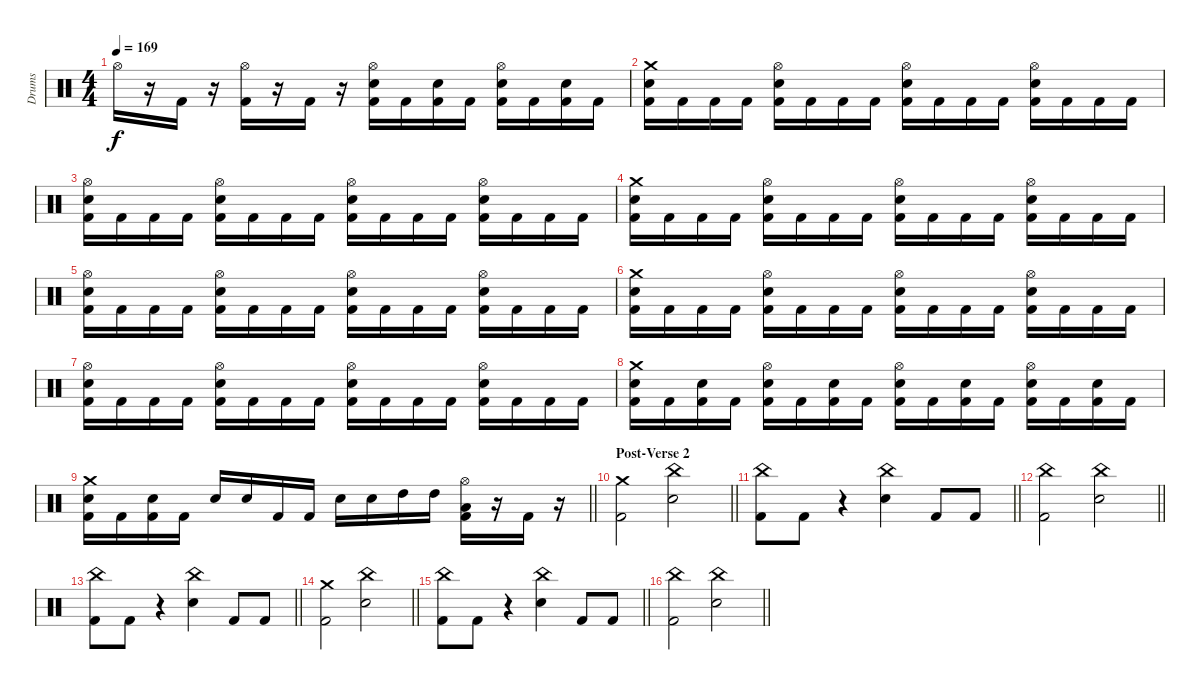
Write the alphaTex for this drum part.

\track ("Drums" "Drums") {instrument percussion}
\staff {score}
\articulation defaults
\ts (4 4)
\tempo 169
\clef neutral
\ks c "Hi-Hat (open)".16{dy f}
r.16 "Kick (hit) 2".16 r.16 ("Hi-Hat (open)" "Kick (hit) 2").16 r.16 "Kick (hit) 2".16 r.16 ("Hi-Hat (open)" "Snare (hit) 2" "Kick (hit) 2").16 "Kick (hit) 2".16 ("Snare (hit) 2" "Kick (hit) 2").16 "Kick (hit) 2".16 ("Hi-Hat (open)" "Snare (hit) 2" "Kick (hit) 2").16 "Kick (hit) 2".16 ("Snare (hit) 2" "Kick (hit) 2").16 "Kick (hit) 2".16 |
("Crash medium (hit)" "Snare (hit) 2" "Kick (hit) 2").16 "Kick (hit) 2".16 "Kick (hit) 2".16 "Kick (hit) 2".16 ("Hi-Hat (open)" "Snare (hit) 2" "Kick (hit) 2").16 "Kick (hit) 2".16 "Kick (hit) 2".16 "Kick (hit) 2".16 ("Hi-Hat (open)" "Snare (hit) 2" "Kick (hit) 2").16 "Kick (hit) 2".16 "Kick (hit) 2".16 "Kick (hit) 2".16 ("Hi-Hat (open)" "Snare (hit) 2" "Kick (hit) 2").16 "Kick (hit) 2".16 "Kick (hit) 2".16 "Kick (hit) 2".16 |
("Hi-Hat (open)" "Snare (hit) 2" "Kick (hit) 2").16 "Kick (hit) 2".16 "Kick (hit) 2".16 "Kick (hit) 2".16 ("Hi-Hat (open)" "Snare (hit) 2" "Kick (hit) 2").16 "Kick (hit) 2".16 "Kick (hit) 2".16 "Kick (hit) 2".16 ("Hi-Hat (open)" "Snare (hit) 2" "Kick (hit) 2").16 "Kick (hit) 2".16 "Kick (hit) 2".16 "Kick (hit) 2".16 ("Hi-Hat (open)" "Snare (hit) 2" "Kick (hit) 2").16 "Kick (hit) 2".16 "Kick (hit) 2".16 "Kick (hit) 2".16 |
("Crash medium (hit)" "Snare (hit) 2" "Kick (hit) 2").16 "Kick (hit) 2".16 "Kick (hit) 2".16 "Kick (hit) 2".16 ("Hi-Hat (open)" "Snare (hit) 2" "Kick (hit) 2").16 "Kick (hit) 2".16 "Kick (hit) 2".16 "Kick (hit) 2".16 ("Hi-Hat (open)" "Snare (hit) 2" "Kick (hit) 2").16 "Kick (hit) 2".16 "Kick (hit) 2".16 "Kick (hit) 2".16 ("Hi-Hat (open)" "Snare (hit) 2" "Kick (hit) 2").16 "Kick (hit) 2".16 "Kick (hit) 2".16 "Kick (hit) 2".16 |
("Hi-Hat (open)" "Snare (hit) 2" "Kick (hit) 2").16 "Kick (hit) 2".16 "Kick (hit) 2".16 "Kick (hit) 2".16 ("Hi-Hat (open)" "Snare (hit) 2" "Kick (hit) 2").16 "Kick (hit) 2".16 "Kick (hit) 2".16 "Kick (hit) 2".16 ("Hi-Hat (open)" "Snare (hit) 2" "Kick (hit) 2").16 "Kick (hit) 2".16 "Kick (hit) 2".16 "Kick (hit) 2".16 ("Hi-Hat (open)" "Snare (hit) 2" "Kick (hit) 2").16 "Kick (hit) 2".16 "Kick (hit) 2".16 "Kick (hit) 2".16 |
("Crash medium (hit)" "Snare (hit) 2" "Kick (hit) 2").16 "Kick (hit) 2".16 "Kick (hit) 2".16 "Kick (hit) 2".16 ("Hi-Hat (open)" "Snare (hit) 2" "Kick (hit) 2").16 "Kick (hit) 2".16 "Kick (hit) 2".16 "Kick (hit) 2".16 ("Hi-Hat (open)" "Snare (hit) 2" "Kick (hit) 2").16 "Kick (hit) 2".16 "Kick (hit) 2".16 "Kick (hit) 2".16 ("Hi-Hat (open)" "Snare (hit) 2" "Kick (hit) 2").16 "Kick (hit) 2".16 "Kick (hit) 2".16 "Kick (hit) 2".16 |
("Hi-Hat (open)" "Snare (hit) 2" "Kick (hit) 2").16 "Kick (hit) 2".16 "Kick (hit) 2".16 "Kick (hit) 2".16 ("Hi-Hat (open)" "Snare (hit) 2" "Kick (hit) 2").16 "Kick (hit) 2".16 "Kick (hit) 2".16 "Kick (hit) 2".16 ("Hi-Hat (open)" "Snare (hit) 2" "Kick (hit) 2").16 "Kick (hit) 2".16 "Kick (hit) 2".16 "Kick (hit) 2".16 ("Hi-Hat (open)" "Snare (hit) 2" "Kick (hit) 2").16 "Kick (hit) 2".16 "Kick (hit) 2".16 "Kick (hit) 2".16 |
("Crash medium (hit)" "Snare (hit) 2" "Kick (hit) 2").16 "Kick (hit) 2".16 ("Snare (hit) 2" "Kick (hit) 2").16 "Kick (hit) 2".16 ("Hi-Hat (open)" "Snare (hit) 2" "Kick (hit) 2").16 "Kick (hit) 2".16 ("Snare (hit) 2" "Kick (hit) 2").16 "Kick (hit) 2".16 ("Hi-Hat (open)" "Snare (hit) 2" "Kick (hit) 2").16 "Kick (hit) 2".16 ("Snare (hit) 2" "Kick (hit) 2").16 "Kick (hit) 2".16 ("Hi-Hat (open)" "Snare (hit) 2" "Kick (hit) 2").16 "Kick (hit) 2".16 ("Snare (hit) 2" "Kick (hit) 2").16 "Kick (hit) 2".16 |
\barLineRight lightlight
("Crash medium (hit)" "Snare (hit) 2" "Kick (hit) 2").16 "Kick (hit) 2".16 ("Snare (hit) 2" "Kick (hit) 2").16 "Kick (hit) 2".16 "Snare (hit) 2".16 "Snare (hit) 2".16 "Kick (hit) 2".16 "Kick (hit) 2".16 "Snare (hit) 2".16 "Snare (hit) 2".16 "High Tom (hit)".16 "High Tom (hit)".16 ("Hi-Hat (open)" "Low Tom (hit)" "Kick (hit) 2").16 r.16 "Kick (hit) 2".16 r.16 |
\section ("" "Post-Verse 2")
\barLineRight lightlight
("Crash medium (hit)" "Kick (hit) 2").2 ("China (hit)" "Snare (hit) 2").2 |
\barLineRight lightlight
("China (hit)" "Kick (hit) 2").8 "Kick (hit) 2".8 r.4 ("China (hit)" "Snare (hit) 2").4 "Kick (hit) 2".8 "Kick (hit) 2".8 |
\barLineRight lightlight
("China (hit)" "Kick (hit) 2").2 ("China (hit)" "Snare (hit) 2").2 |
\barLineRight lightlight
("China (hit)" "Kick (hit) 2").8 "Kick (hit) 2".8 r.4 ("China (hit)" "Snare (hit) 2").4 "Kick (hit) 2".8 "Kick (hit) 2".8 |
\barLineRight lightlight
("Crash medium (hit)" "Kick (hit) 2").2 ("China (hit)" "Snare (hit) 2").2 |
\barLineRight lightlight
("China (hit)" "Kick (hit) 2").8 "Kick (hit) 2".8 r.4 ("China (hit)" "Snare (hit) 2").4 "Kick (hit) 2".8 "Kick (hit) 2".8 |
\barLineRight lightlight
("China (hit)" "Kick (hit) 2").2 ("China (hit)" "Snare (hit) 2").2
